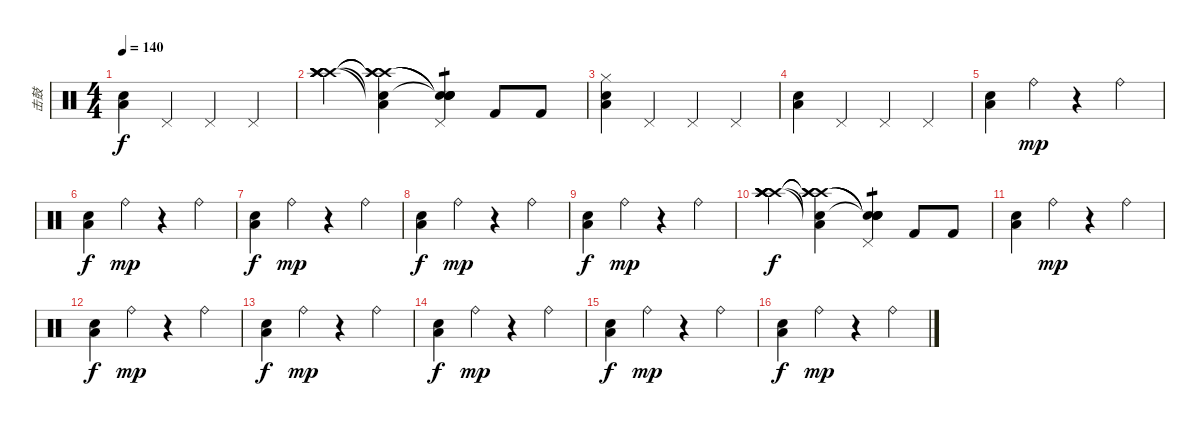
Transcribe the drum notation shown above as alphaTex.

\track ("击鼓" "击鼓") {instrument percussion}
\staff {score}
\articulation defaults
\ts (4 4)
\tempo 140
\clef neutral
\ks c
("Low Floor Tom (hit)" "Snare (hit) 2").4{dy f} "Pedal Hi-Hat (hit)".4 "Pedal Hi-Hat (hit)".4 "Pedal Hi-Hat (hit)".4 |
("Crash high (hit)" "Crash high (hit)" "Crash high (hit)" "Crash high (hit)" "Crash high (hit)").4 ("Crash high (hit)"{t} "Crash high (hit)"{t} "Crash high (hit)"{t} "Low Floor Tom (hit)"{t} "Snare (hit) 2"{t}).4 ("Snare (hit)"{t} "Snare (hit)"{t} "Snare (hit)"{t} "Pedal Hi-Hat (hit)" "Snare (hit)"{t}).4{tp 1} "Kick (hit) 2".8 "Kick (hit) 2".8 |
("Hi-Hat (closed)" "Low Floor Tom (hit)" "Snare (hit) 2").4 "Pedal Hi-Hat (hit)".4 "Pedal Hi-Hat (hit)".4 "Pedal Hi-Hat (hit)".4 |
("Low Floor Tom (hit)" "Snare (hit) 2").4 "Pedal Hi-Hat (hit)".4 "Pedal Hi-Hat (hit)".4 "Pedal Hi-Hat (hit)".4 |
("Low Floor Tom (hit)" "Snare (hit) 2").4 "Ride (bell)".4{dy mp} r.4 "Ride (bell)".4 |
("Low Floor Tom (hit)" "Snare (hit) 2").4{dy f} "Ride (bell)".4{dy mp} r.4 "Ride (bell)".4 |
("Low Floor Tom (hit)" "Snare (hit) 2").4{dy f} "Ride (bell)".4{dy mp} r.4 "Ride (bell)".4 |
("Low Floor Tom (hit)" "Snare (hit) 2").4{dy f} "Ride (bell)".4{dy mp} r.4 "Ride (bell)".4 |
("Low Floor Tom (hit)" "Snare (hit) 2").4{dy f} "Ride (bell)".4{dy mp} r.4 "Ride (bell)".4 |
("Crash high (hit)" "Crash high (hit)" "Crash high (hit)" "Crash high (hit)" "Crash high (hit)").4{dy f} ("Crash high (hit)"{t} "Crash high (hit)"{t} "Crash high (hit)"{t} "Low Floor Tom (hit)"{t} "Snare (hit) 2"{t}).4 ("Snare (hit)"{t} "Snare (hit)"{t} "Snare (hit)"{t} "Pedal Hi-Hat (hit)" "Snare (hit)"{t}).4{tp 1} "Kick (hit) 2".8 "Kick (hit) 2".8 |
("Low Floor Tom (hit)" "Snare (hit) 2").4 "Ride (bell)".4{dy mp} r.4 "Ride (bell)".4 |
("Low Floor Tom (hit)" "Snare (hit) 2").4{dy f} "Ride (bell)".4{dy mp} r.4 "Ride (bell)".4 |
("Low Floor Tom (hit)" "Snare (hit) 2").4{dy f} "Ride (bell)".4{dy mp} r.4 "Ride (bell)".4 |
("Low Floor Tom (hit)" "Snare (hit) 2").4{dy f} "Ride (bell)".4{dy mp} r.4 "Ride (bell)".4 |
("Low Floor Tom (hit)" "Snare (hit) 2").4{dy f} "Ride (bell)".4{dy mp} r.4 "Ride (bell)".4 |
("Low Floor Tom (hit)" "Snare (hit) 2").4{dy f} "Ride (bell)".4{dy mp} r.4 "Ride (bell)".4
